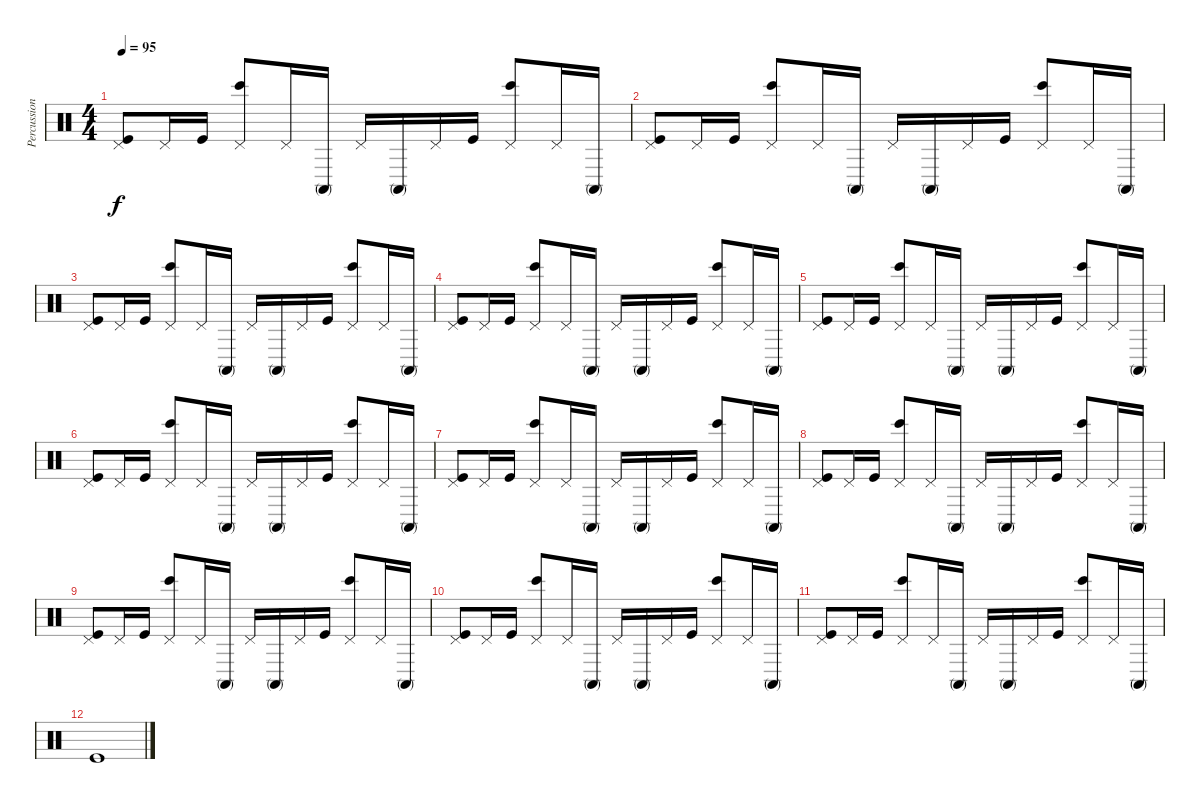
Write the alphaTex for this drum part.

\track ("Percussion" "Percussion") {instrument percussion}
\staff {score}
\articulation defaults
\ts (4 4)
\tempo 95
\clef neutral
\ks c
("Pedal Hi-Hat (hit)" "Kick (hit)").8{dy f} "Pedal Hi-Hat (hit)".16 "Kick (hit)".16 ("Pedal Hi-Hat (hit)" "Bongo High (hit)").8 "Pedal Hi-Hat (hit)".16 "Conga high (mute)".16 "Pedal Hi-Hat (hit)".16 "Conga high (mute)".16 "Pedal Hi-Hat (hit)".16 "Kick (hit)".16 ("Pedal Hi-Hat (hit)" "Bongo High (hit)").8 "Pedal Hi-Hat (hit)".16 "Conga high (mute)".16 |
("Pedal Hi-Hat (hit)" "Kick (hit)").8 "Pedal Hi-Hat (hit)".16 "Kick (hit)".16 ("Pedal Hi-Hat (hit)" "Bongo High (hit)").8 "Pedal Hi-Hat (hit)".16 "Conga high (mute)".16 "Pedal Hi-Hat (hit)".16 "Conga high (mute)".16 "Pedal Hi-Hat (hit)".16 "Kick (hit)".16 ("Pedal Hi-Hat (hit)" "Bongo High (hit)").8 "Pedal Hi-Hat (hit)".16 "Conga high (mute)".16 |
("Pedal Hi-Hat (hit)" "Kick (hit)").8 "Pedal Hi-Hat (hit)".16 "Kick (hit)".16 ("Pedal Hi-Hat (hit)" "Bongo High (hit)").8 "Pedal Hi-Hat (hit)".16 "Conga high (mute)".16 "Pedal Hi-Hat (hit)".16 "Conga high (mute)".16 "Pedal Hi-Hat (hit)".16 "Kick (hit)".16 ("Pedal Hi-Hat (hit)" "Bongo High (hit)").8 "Pedal Hi-Hat (hit)".16 "Conga high (mute)".16 |
("Pedal Hi-Hat (hit)" "Kick (hit)").8 "Pedal Hi-Hat (hit)".16 "Kick (hit)".16 ("Pedal Hi-Hat (hit)" "Bongo High (hit)").8 "Pedal Hi-Hat (hit)".16 "Conga high (mute)".16 "Pedal Hi-Hat (hit)".16 "Conga high (mute)".16 "Pedal Hi-Hat (hit)".16 "Kick (hit)".16 ("Pedal Hi-Hat (hit)" "Bongo High (hit)").8 "Pedal Hi-Hat (hit)".16 "Conga high (mute)".16 |
("Pedal Hi-Hat (hit)" "Kick (hit)").8 "Pedal Hi-Hat (hit)".16 "Kick (hit)".16 ("Pedal Hi-Hat (hit)" "Bongo High (hit)").8 "Pedal Hi-Hat (hit)".16 "Conga high (mute)".16 "Pedal Hi-Hat (hit)".16 "Conga high (mute)".16 "Pedal Hi-Hat (hit)".16 "Kick (hit)".16 ("Pedal Hi-Hat (hit)" "Bongo High (hit)").8 "Pedal Hi-Hat (hit)".16 "Conga high (mute)".16 |
("Pedal Hi-Hat (hit)" "Kick (hit)").8 "Pedal Hi-Hat (hit)".16 "Kick (hit)".16 ("Pedal Hi-Hat (hit)" "Bongo High (hit)").8 "Pedal Hi-Hat (hit)".16 "Conga high (mute)".16 "Pedal Hi-Hat (hit)".16 "Conga high (mute)".16 "Pedal Hi-Hat (hit)".16 "Kick (hit)".16 ("Pedal Hi-Hat (hit)" "Bongo High (hit)").8 "Pedal Hi-Hat (hit)".16 "Conga high (mute)".16 |
("Pedal Hi-Hat (hit)" "Kick (hit)").8 "Pedal Hi-Hat (hit)".16 "Kick (hit)".16 ("Pedal Hi-Hat (hit)" "Bongo High (hit)").8 "Pedal Hi-Hat (hit)".16 "Conga high (mute)".16 "Pedal Hi-Hat (hit)".16 "Conga high (mute)".16 "Pedal Hi-Hat (hit)".16 "Kick (hit)".16 ("Pedal Hi-Hat (hit)" "Bongo High (hit)").8 "Pedal Hi-Hat (hit)".16 "Conga high (mute)".16 |
("Pedal Hi-Hat (hit)" "Kick (hit)").8 "Pedal Hi-Hat (hit)".16 "Kick (hit)".16 ("Pedal Hi-Hat (hit)" "Bongo High (hit)").8 "Pedal Hi-Hat (hit)".16 "Conga high (mute)".16 "Pedal Hi-Hat (hit)".16 "Conga high (mute)".16 "Pedal Hi-Hat (hit)".16 "Kick (hit)".16 ("Pedal Hi-Hat (hit)" "Bongo High (hit)").8 "Pedal Hi-Hat (hit)".16 "Conga high (mute)".16 |
("Pedal Hi-Hat (hit)" "Kick (hit)").8 "Pedal Hi-Hat (hit)".16 "Kick (hit)".16 ("Pedal Hi-Hat (hit)" "Bongo High (hit)").8 "Pedal Hi-Hat (hit)".16 "Conga high (mute)".16 "Pedal Hi-Hat (hit)".16 "Conga high (mute)".16 "Pedal Hi-Hat (hit)".16 "Kick (hit)".16 ("Pedal Hi-Hat (hit)" "Bongo High (hit)").8 "Pedal Hi-Hat (hit)".16 "Conga high (mute)".16 |
("Pedal Hi-Hat (hit)" "Kick (hit)").8 "Pedal Hi-Hat (hit)".16 "Kick (hit)".16 ("Pedal Hi-Hat (hit)" "Bongo High (hit)").8 "Pedal Hi-Hat (hit)".16 "Conga high (mute)".16 "Pedal Hi-Hat (hit)".16 "Conga high (mute)".16 "Pedal Hi-Hat (hit)".16 "Kick (hit)".16 ("Pedal Hi-Hat (hit)" "Bongo High (hit)").8 "Pedal Hi-Hat (hit)".16 "Conga high (mute)".16 |
("Pedal Hi-Hat (hit)" "Kick (hit)").8 "Pedal Hi-Hat (hit)".16 "Kick (hit)".16 ("Pedal Hi-Hat (hit)" "Bongo High (hit)").8 "Pedal Hi-Hat (hit)".16 "Conga high (mute)".16 "Pedal Hi-Hat (hit)".16 "Conga high (mute)".16 "Pedal Hi-Hat (hit)".16 "Kick (hit)".16 ("Pedal Hi-Hat (hit)" "Bongo High (hit)").8 "Pedal Hi-Hat (hit)".16 "Conga high (mute)".16 |
"Kick (hit)".1
